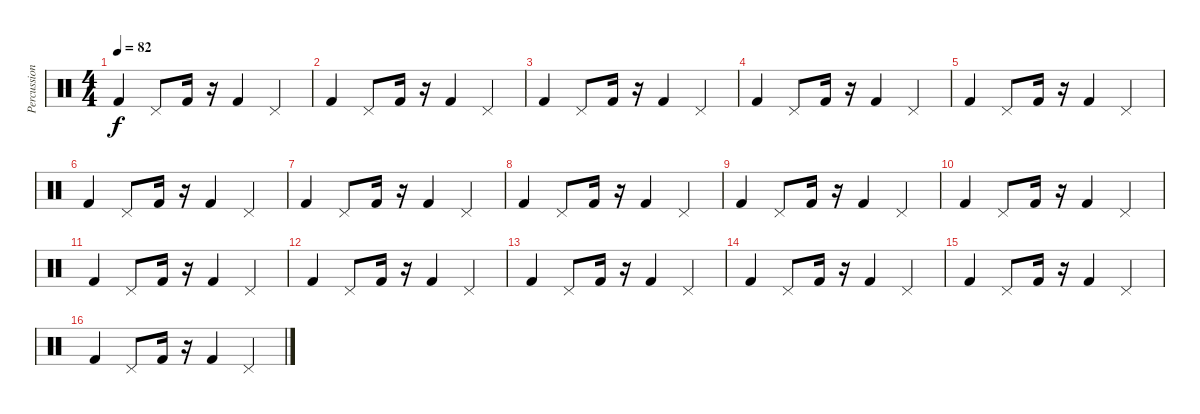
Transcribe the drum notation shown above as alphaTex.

\track ("Percussions" "Percussion") {instrument percussion}
\staff {score}
\articulation defaults
\ts (4 4)
\tempo 82
\clef neutral
\ks c "Kick (hit) 2".4{dy f} "Pedal Hi-Hat (hit)".8 "Kick (hit) 2".16
r.16 "Kick (hit) 2".4 "Pedal Hi-Hat (hit)".4 |
"Kick (hit) 2".4 "Pedal Hi-Hat (hit)".8 "Kick (hit) 2".16 r.16 "Kick (hit) 2".4 "Pedal Hi-Hat (hit)".4 |
"Kick (hit) 2".4 "Pedal Hi-Hat (hit)".8 "Kick (hit) 2".16 r.16 "Kick (hit) 2".4 "Pedal Hi-Hat (hit)".4 |
"Kick (hit) 2".4 "Pedal Hi-Hat (hit)".8 "Kick (hit) 2".16 r.16 "Kick (hit) 2".4 "Pedal Hi-Hat (hit)".4 |
"Kick (hit) 2".4 "Pedal Hi-Hat (hit)".8 "Kick (hit) 2".16 r.16 "Kick (hit) 2".4 "Pedal Hi-Hat (hit)".4 |
"Kick (hit) 2".4 "Pedal Hi-Hat (hit)".8 "Kick (hit) 2".16 r.16 "Kick (hit) 2".4 "Pedal Hi-Hat (hit)".4 |
"Kick (hit) 2".4 "Pedal Hi-Hat (hit)".8 "Kick (hit) 2".16 r.16 "Kick (hit) 2".4 "Pedal Hi-Hat (hit)".4 |
"Kick (hit) 2".4 "Pedal Hi-Hat (hit)".8 "Kick (hit) 2".16 r.16 "Kick (hit) 2".4 "Pedal Hi-Hat (hit)".4 |
"Kick (hit) 2".4 "Pedal Hi-Hat (hit)".8 "Kick (hit) 2".16 r.16 "Kick (hit) 2".4 "Pedal Hi-Hat (hit)".4 |
"Kick (hit) 2".4 "Pedal Hi-Hat (hit)".8 "Kick (hit) 2".16 r.16 "Kick (hit) 2".4 "Pedal Hi-Hat (hit)".4 |
"Kick (hit) 2".4 "Pedal Hi-Hat (hit)".8 "Kick (hit) 2".16 r.16 "Kick (hit) 2".4 "Pedal Hi-Hat (hit)".4 |
"Kick (hit) 2".4 "Pedal Hi-Hat (hit)".8 "Kick (hit) 2".16 r.16 "Kick (hit) 2".4 "Pedal Hi-Hat (hit)".4 |
"Kick (hit) 2".4 "Pedal Hi-Hat (hit)".8 "Kick (hit) 2".16 r.16 "Kick (hit) 2".4 "Pedal Hi-Hat (hit)".4 |
"Kick (hit) 2".4 "Pedal Hi-Hat (hit)".8 "Kick (hit) 2".16 r.16 "Kick (hit) 2".4 "Pedal Hi-Hat (hit)".4 |
"Kick (hit) 2".4 "Pedal Hi-Hat (hit)".8 "Kick (hit) 2".16 r.16 "Kick (hit) 2".4 "Pedal Hi-Hat (hit)".4 |
"Kick (hit) 2".4 "Pedal Hi-Hat (hit)".8 "Kick (hit) 2".16 r.16 "Kick (hit) 2".4 "Pedal Hi-Hat (hit)".4
